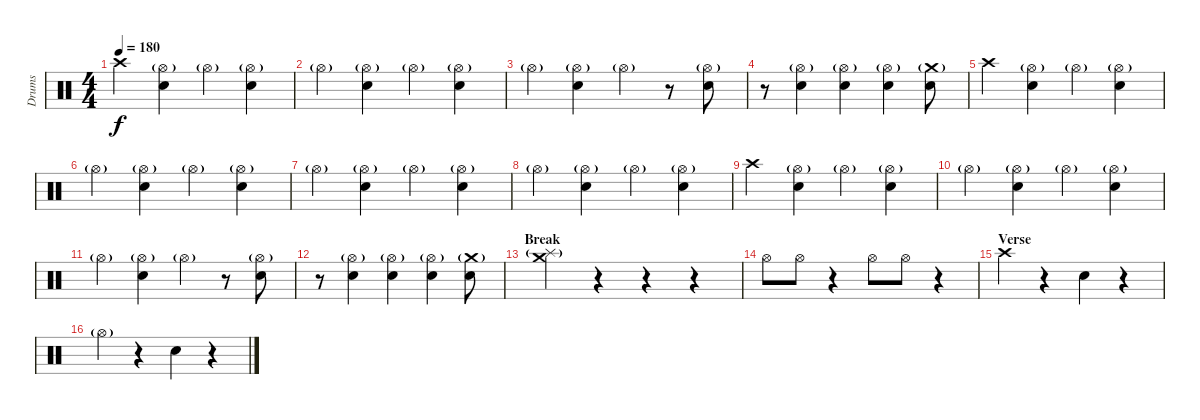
\track ("Drums" "Drums") {instrument percussion}
\staff {score}
\articulation defaults
\ts (4 4)
\tempo 180
\clef neutral
\ks c "Crash high (hit)".4{dy f}
("Hi-Hat (open)"{g} "Electric Snare (hit)").4 "Hi-Hat (open)"{g}.4 ("Hi-Hat (open)"{g} "Electric Snare (hit)").4 |
"Hi-Hat (open)"{g}.4 ("Hi-Hat (open)"{g} "Electric Snare (hit)").4 "Hi-Hat (open)"{g}.4 ("Hi-Hat (open)"{g} "Electric Snare (hit)").4 |
"Hi-Hat (open)"{g}.4 ("Hi-Hat (open)"{g} "Electric Snare (hit)").4 "Hi-Hat (open)"{g}.4 r.8 ("Hi-Hat (open)"{g} "Electric Snare (hit)").8 |
r.8 ("Hi-Hat (open)"{g} "Electric Snare (hit)").4 ("Hi-Hat (open)"{g} "Electric Snare (hit)").4 ("Hi-Hat (open)"{g} "Electric Snare (hit)").4 ("Crash medium (hit)"{g} "Electric Snare (hit)").8 |
"Crash high (hit)".4 ("Hi-Hat (open)"{g} "Electric Snare (hit)").4 "Hi-Hat (open)"{g}.4 ("Hi-Hat (open)"{g} "Electric Snare (hit)").4 |
"Hi-Hat (open)"{g}.4 ("Hi-Hat (open)"{g} "Electric Snare (hit)").4 "Hi-Hat (open)"{g}.4 ("Hi-Hat (open)"{g} "Electric Snare (hit)").4 |
"Hi-Hat (open)"{g}.4 ("Hi-Hat (open)"{g} "Electric Snare (hit)").4 "Hi-Hat (open)"{g}.4 ("Hi-Hat (open)"{g} "Electric Snare (hit)").4 |
"Hi-Hat (open)"{g}.4 ("Hi-Hat (open)"{g} "Electric Snare (hit)").4 "Hi-Hat (open)"{g}.4 ("Hi-Hat (open)"{g} "Electric Snare (hit)").4 |
"Crash high (hit)".4 ("Hi-Hat (open)"{g} "Electric Snare (hit)").4 "Hi-Hat (open)"{g}.4 ("Hi-Hat (open)"{g} "Electric Snare (hit)").4 |
"Hi-Hat (open)"{g}.4 ("Hi-Hat (open)"{g} "Electric Snare (hit)").4 "Hi-Hat (open)"{g}.4 ("Hi-Hat (open)"{g} "Electric Snare (hit)").4 |
"Hi-Hat (open)"{g}.4 ("Hi-Hat (open)"{g} "Electric Snare (hit)").4 "Hi-Hat (open)"{g}.4 r.8 ("Hi-Hat (open)"{g} "Electric Snare (hit)").8 |
r.8 ("Hi-Hat (open)"{g} "Electric Snare (hit)").4 ("Hi-Hat (open)"{g} "Electric Snare (hit)").4 ("Hi-Hat (open)"{g} "Electric Snare (hit)").4 ("Crash medium (hit)"{g} "Electric Snare (hit)").8 |
\section ("" "Break")
("Crash medium (hit)" "Splash (hit)"{g}).4 r.4 r.4 r.4 |
"Hi-Hat (open)".8 "Hi-Hat (open)".8 r.4 "Hi-Hat (open)".8 "Hi-Hat (open)".8 r.4 |
\section ("" "Verse")
"Crash high (hit)".4 r.4 "Electric Snare (hit)".4 r.4 |
"Hi-Hat (open)"{g}.4 r.4 "Electric Snare (hit)".4 r.4
